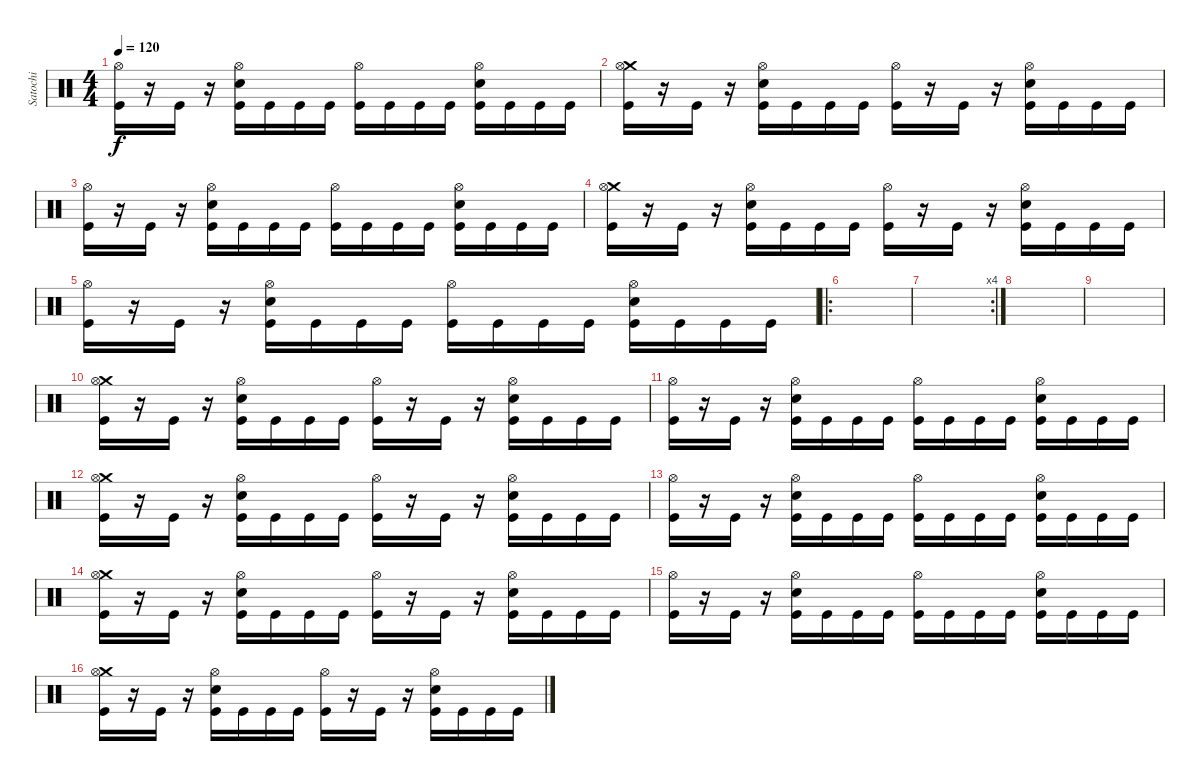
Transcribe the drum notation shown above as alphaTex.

\track ("Satochi" "Satochi") {instrument percussion}
\staff {score}
\articulation defaults
\ts (4 4)
\tempo 120
\clef neutral
\ks c
("Hi-Hat (open)" "Kick (hit)").16{dy f} r.16 "Kick (hit)".16 r.16 ("Hi-Hat (open)" "Electric Snare (hit)" "Kick (hit)").16 "Kick (hit)".16 "Kick (hit)".16 "Kick (hit)".16 ("Hi-Hat (open)" "Kick (hit)").16 "Kick (hit)".16 "Kick (hit)".16 "Kick (hit)".16 ("Hi-Hat (open)" "Electric Snare (hit)" "Kick (hit)").16 "Kick (hit)".16 "Kick (hit)".16 "Kick (hit)".16 |
("Crash medium (hit)" "Hi-Hat (open)" "Kick (hit)").16 r.16 "Kick (hit)".16 r.16 ("Hi-Hat (open)" "Electric Snare (hit)" "Kick (hit)").16 "Kick (hit)".16 "Kick (hit)".16 "Kick (hit)".16 ("Hi-Hat (open)" "Kick (hit)").16 r.16 "Kick (hit)".16 r.16 ("Hi-Hat (open)" "Electric Snare (hit)" "Kick (hit)").16 "Kick (hit)".16 "Kick (hit)".16 "Kick (hit)".16 |
("Hi-Hat (open)" "Kick (hit)").16 r.16 "Kick (hit)".16 r.16 ("Hi-Hat (open)" "Electric Snare (hit)" "Kick (hit)").16 "Kick (hit)".16 "Kick (hit)".16 "Kick (hit)".16 ("Hi-Hat (open)" "Kick (hit)").16 "Kick (hit)".16 "Kick (hit)".16 "Kick (hit)".16 ("Hi-Hat (open)" "Electric Snare (hit)" "Kick (hit)").16 "Kick (hit)".16 "Kick (hit)".16 "Kick (hit)".16 |
("Crash medium (hit)" "Hi-Hat (open)" "Kick (hit)").16 r.16 "Kick (hit)".16 r.16 ("Hi-Hat (open)" "Electric Snare (hit)" "Kick (hit)").16 "Kick (hit)".16 "Kick (hit)".16 "Kick (hit)".16 ("Hi-Hat (open)" "Kick (hit)").16 r.16 "Kick (hit)".16 r.16 ("Hi-Hat (open)" "Electric Snare (hit)" "Kick (hit)").16 "Kick (hit)".16 "Kick (hit)".16 "Kick (hit)".16 |
("Hi-Hat (open)" "Kick (hit)").16 r.16 "Kick (hit)".16 r.16 ("Hi-Hat (open)" "Electric Snare (hit)" "Kick (hit)").16 "Kick (hit)".16 "Kick (hit)".16 "Kick (hit)".16 ("Hi-Hat (open)" "Kick (hit)").16 "Kick (hit)".16 "Kick (hit)".16 "Kick (hit)".16 ("Hi-Hat (open)" "Electric Snare (hit)" "Kick (hit)").16 "Kick (hit)".16 "Kick (hit)".16 "Kick (hit)".16 |
\ro
|
\rc 4
|
|
|
("Crash medium (hit)" "Hi-Hat (open)" "Kick (hit)").16 r.16 "Kick (hit)".16 r.16 ("Hi-Hat (open)" "Electric Snare (hit)" "Kick (hit)").16 "Kick (hit)".16 "Kick (hit)".16 "Kick (hit)".16 ("Hi-Hat (open)" "Kick (hit)").16 r.16 "Kick (hit)".16 r.16 ("Hi-Hat (open)" "Electric Snare (hit)" "Kick (hit)").16 "Kick (hit)".16 "Kick (hit)".16 "Kick (hit)".16 |
("Hi-Hat (open)" "Kick (hit)").16 r.16 "Kick (hit)".16 r.16 ("Hi-Hat (open)" "Electric Snare (hit)" "Kick (hit)").16 "Kick (hit)".16 "Kick (hit)".16 "Kick (hit)".16 ("Hi-Hat (open)" "Kick (hit)").16 "Kick (hit)".16 "Kick (hit)".16 "Kick (hit)".16 ("Hi-Hat (open)" "Electric Snare (hit)" "Kick (hit)").16 "Kick (hit)".16 "Kick (hit)".16 "Kick (hit)".16 |
("Crash medium (hit)" "Hi-Hat (open)" "Kick (hit)").16 r.16 "Kick (hit)".16 r.16 ("Hi-Hat (open)" "Electric Snare (hit)" "Kick (hit)").16 "Kick (hit)".16 "Kick (hit)".16 "Kick (hit)".16 ("Hi-Hat (open)" "Kick (hit)").16 r.16 "Kick (hit)".16 r.16 ("Hi-Hat (open)" "Electric Snare (hit)" "Kick (hit)").16 "Kick (hit)".16 "Kick (hit)".16 "Kick (hit)".16 |
("Hi-Hat (open)" "Kick (hit)").16 r.16 "Kick (hit)".16 r.16 ("Hi-Hat (open)" "Electric Snare (hit)" "Kick (hit)").16 "Kick (hit)".16 "Kick (hit)".16 "Kick (hit)".16 ("Hi-Hat (open)" "Kick (hit)").16 "Kick (hit)".16 "Kick (hit)".16 "Kick (hit)".16 ("Hi-Hat (open)" "Electric Snare (hit)" "Kick (hit)").16 "Kick (hit)".16 "Kick (hit)".16 "Kick (hit)".16 |
("Crash medium (hit)" "Hi-Hat (open)" "Kick (hit)").16 r.16 "Kick (hit)".16 r.16 ("Hi-Hat (open)" "Electric Snare (hit)" "Kick (hit)").16 "Kick (hit)".16 "Kick (hit)".16 "Kick (hit)".16 ("Hi-Hat (open)" "Kick (hit)").16 r.16 "Kick (hit)".16 r.16 ("Hi-Hat (open)" "Electric Snare (hit)" "Kick (hit)").16 "Kick (hit)".16 "Kick (hit)".16 "Kick (hit)".16 |
("Hi-Hat (open)" "Kick (hit)").16 r.16 "Kick (hit)".16 r.16 ("Hi-Hat (open)" "Electric Snare (hit)" "Kick (hit)").16 "Kick (hit)".16 "Kick (hit)".16 "Kick (hit)".16 ("Hi-Hat (open)" "Kick (hit)").16 "Kick (hit)".16 "Kick (hit)".16 "Kick (hit)".16 ("Hi-Hat (open)" "Electric Snare (hit)" "Kick (hit)").16 "Kick (hit)".16 "Kick (hit)".16 "Kick (hit)".16 |
("Crash medium (hit)" "Hi-Hat (open)" "Kick (hit)").16 r.16 "Kick (hit)".16 r.16 ("Hi-Hat (open)" "Electric Snare (hit)" "Kick (hit)").16 "Kick (hit)".16 "Kick (hit)".16 "Kick (hit)".16 ("Hi-Hat (open)" "Kick (hit)").16 r.16 "Kick (hit)".16 r.16 ("Hi-Hat (open)" "Electric Snare (hit)" "Kick (hit)").16 "Kick (hit)".16 "Kick (hit)".16 "Kick (hit)".16
